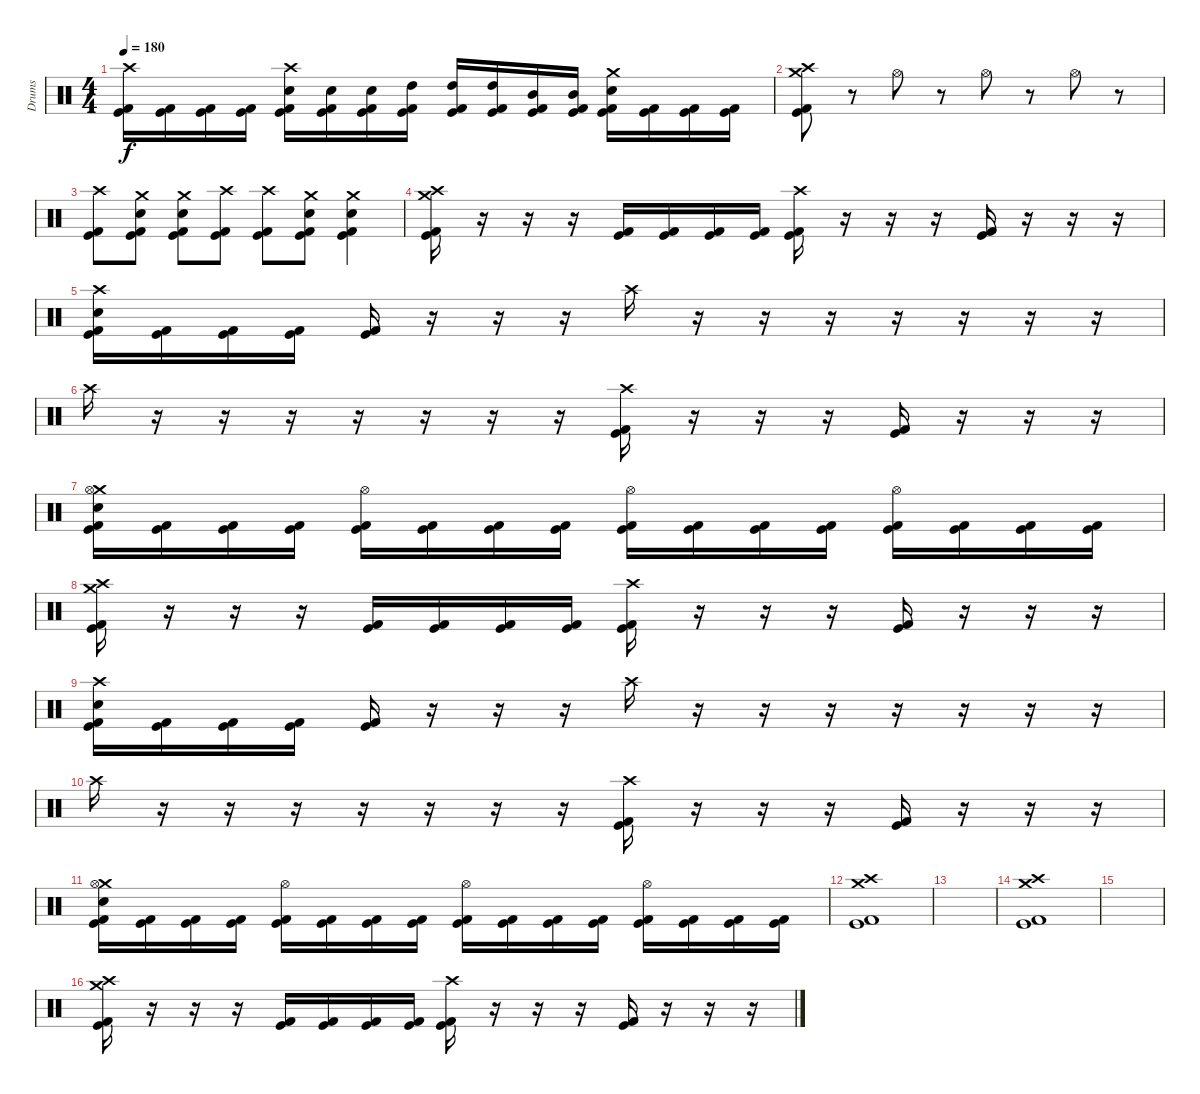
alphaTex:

\track ("Drums" "Drums") {instrument percussion}
\staff {score}
\articulation defaults
\ts (4 4)
\tempo 180
\clef neutral
\ks c
("Crash high (hit)" "Kick (hit)" "Kick (hit) 2").16{dy f} ("Kick (hit)" "Kick (hit) 2").16 ("Kick (hit)" "Kick (hit) 2").16 ("Kick (hit)" "Kick (hit) 2").16 ("Crash high (hit)" "Snare (hit) 2" "Kick (hit)" "Kick (hit) 2").16 ("Snare (hit) 2" "Kick (hit)" "Kick (hit) 2").16 ("Snare (hit) 2" "Kick (hit)" "Kick (hit) 2").16 ("High Tom (hit)" "Kick (hit)" "Kick (hit) 2").16 ("High Tom (hit)" "Kick (hit)" "Kick (hit) 2").16 ("High Tom (hit)" "Kick (hit)" "Kick (hit) 2").16 ("Mid Tom (hit)" "Kick (hit)" "Kick (hit) 2").16 ("Mid Tom (hit)" "Kick (hit)" "Kick (hit) 2").16 ("Crash medium (hit)" "Snare (hit) 2" "Kick (hit)" "Kick (hit) 2").16 ("Kick (hit)" "Kick (hit) 2").16 ("Kick (hit)" "Kick (hit) 2").16 ("Kick (hit)" "Kick (hit) 2").16 |
("Crash medium (hit)" "Crash high (hit)" "Kick (hit)" "Kick (hit) 2").8 r.8 "Hi-Hat (open)".8 r.8 "Hi-Hat (open)".8 r.8 "Hi-Hat (open)".8 r.8 |
("Crash high (hit)" "Kick (hit)" "Kick (hit) 2").8 ("Crash medium (hit)" "Snare (hit) 2" "Kick (hit)" "Kick (hit) 2").8 ("Crash medium (hit)" "Snare (hit) 2" "Kick (hit)" "Kick (hit) 2").8 ("Crash high (hit)" "Kick (hit)" "Kick (hit) 2").8 ("Crash high (hit)" "Kick (hit)" "Kick (hit) 2").8 ("Crash medium (hit)" "Snare (hit) 2" "Kick (hit)" "Kick (hit) 2").8 ("Crash medium (hit)" "Snare (hit) 2" "Kick (hit)" "Kick (hit) 2").4 |
("Crash medium (hit)" "Crash high (hit)" "Kick (hit)" "Kick (hit) 2").16 r.16 r.16 r.16 ("Kick (hit)" "Kick (hit) 2").16 ("Kick (hit)" "Kick (hit) 2").16 ("Kick (hit)" "Kick (hit) 2").16 ("Kick (hit)" "Kick (hit) 2").16 ("Crash high (hit)" "Kick (hit)" "Kick (hit) 2").16 r.16 r.16 r.16 ("Kick (hit)" "Kick (hit) 2").16 r.16 r.16 r.16 |
("Crash high (hit)" "Snare (hit) 2" "Kick (hit)" "Kick (hit) 2").16 ("Kick (hit)" "Kick (hit) 2").16 ("Kick (hit)" "Kick (hit) 2").16 ("Kick (hit)" "Kick (hit) 2").16 ("Kick (hit)" "Kick (hit) 2").16 r.16 r.16 r.16 "Crash high (hit)".16 r.16 r.16 r.16 r.16 r.16 r.16 r.16 |
"Crash high (hit)".16 r.16 r.16 r.16 r.16 r.16 r.16 r.16 ("Crash high (hit)" "Kick (hit)" "Kick (hit) 2").16 r.16 r.16 r.16 ("Kick (hit)" "Kick (hit) 2").16 r.16 r.16 r.16 |
("Crash medium (hit)" "Hi-Hat (open)" "Snare (hit) 2" "Kick (hit)" "Kick (hit) 2").16 ("Kick (hit)" "Kick (hit) 2").16 ("Kick (hit)" "Kick (hit) 2").16 ("Kick (hit)" "Kick (hit) 2").16 ("Hi-Hat (open)" "Kick (hit)" "Kick (hit) 2").16 ("Kick (hit)" "Kick (hit) 2").16 ("Kick (hit)" "Kick (hit) 2").16 ("Kick (hit)" "Kick (hit) 2").16 ("Hi-Hat (open)" "Kick (hit)" "Kick (hit) 2").16 ("Kick (hit)" "Kick (hit) 2").16 ("Kick (hit)" "Kick (hit) 2").16 ("Kick (hit)" "Kick (hit) 2").16 ("Hi-Hat (open)" "Kick (hit)" "Kick (hit) 2").16 ("Kick (hit)" "Kick (hit) 2").16 ("Kick (hit)" "Kick (hit) 2").16 ("Kick (hit)" "Kick (hit) 2").16 |
("Crash medium (hit)" "Crash high (hit)" "Kick (hit)" "Kick (hit) 2").16 r.16 r.16 r.16 ("Kick (hit)" "Kick (hit) 2").16 ("Kick (hit)" "Kick (hit) 2").16 ("Kick (hit)" "Kick (hit) 2").16 ("Kick (hit)" "Kick (hit) 2").16 ("Crash high (hit)" "Kick (hit)" "Kick (hit) 2").16 r.16 r.16 r.16 ("Kick (hit)" "Kick (hit) 2").16 r.16 r.16 r.16 |
("Crash high (hit)" "Snare (hit) 2" "Kick (hit)" "Kick (hit) 2").16 ("Kick (hit)" "Kick (hit) 2").16 ("Kick (hit)" "Kick (hit) 2").16 ("Kick (hit)" "Kick (hit) 2").16 ("Kick (hit)" "Kick (hit) 2").16 r.16 r.16 r.16 "Crash high (hit)".16 r.16 r.16 r.16 r.16 r.16 r.16 r.16 |
"Crash high (hit)".16 r.16 r.16 r.16 r.16 r.16 r.16 r.16 ("Crash high (hit)" "Kick (hit)" "Kick (hit) 2").16 r.16 r.16 r.16 ("Kick (hit)" "Kick (hit) 2").16 r.16 r.16 r.16 |
("Crash medium (hit)" "Hi-Hat (open)" "Snare (hit) 2" "Kick (hit)" "Kick (hit) 2").16 ("Kick (hit)" "Kick (hit) 2").16 ("Kick (hit)" "Kick (hit) 2").16 ("Kick (hit)" "Kick (hit) 2").16 ("Hi-Hat (open)" "Kick (hit)" "Kick (hit) 2").16 ("Kick (hit)" "Kick (hit) 2").16 ("Kick (hit)" "Kick (hit) 2").16 ("Kick (hit)" "Kick (hit) 2").16 ("Hi-Hat (open)" "Kick (hit)" "Kick (hit) 2").16 ("Kick (hit)" "Kick (hit) 2").16 ("Kick (hit)" "Kick (hit) 2").16 ("Kick (hit)" "Kick (hit) 2").16 ("Hi-Hat (open)" "Kick (hit)" "Kick (hit) 2").16 ("Kick (hit)" "Kick (hit) 2").16 ("Kick (hit)" "Kick (hit) 2").16 ("Kick (hit)" "Kick (hit) 2").16 |
("Crash medium (hit)" "Crash high (hit)" "Kick (hit)" "Kick (hit) 2").1 |
|
("Crash medium (hit)" "Crash high (hit)" "Kick (hit)" "Kick (hit) 2").1 |
|
("Crash medium (hit)" "Crash high (hit)" "Kick (hit)" "Kick (hit) 2").16 r.16 r.16 r.16 ("Kick (hit)" "Kick (hit) 2").16 ("Kick (hit)" "Kick (hit) 2").16 ("Kick (hit)" "Kick (hit) 2").16 ("Kick (hit)" "Kick (hit) 2").16 ("Crash high (hit)" "Kick (hit)" "Kick (hit) 2").16 r.16 r.16 r.16 ("Kick (hit)" "Kick (hit) 2").16 r.16 r.16 r.16
